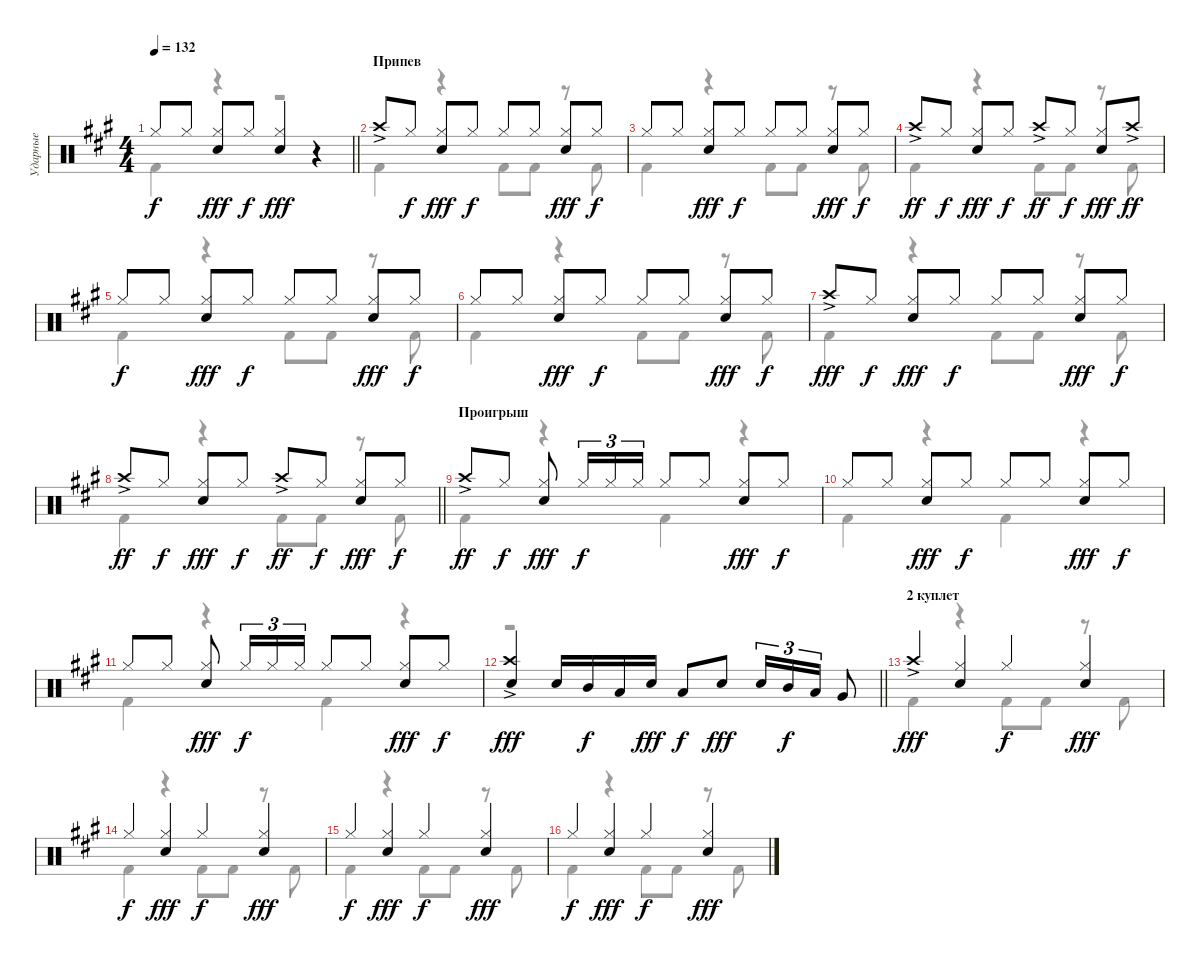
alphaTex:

\track ("Ударные" "Ударные") {instrument percussion}
\staff {score}
\articulation defaults
\voice
\ts (4 4)
\tempo 132
\clef neutral
\barLineRight lightlight
\ks a "Hi-Hat (closed)".8{dy f} "Hi-Hat (closed)".8
("Electric Snare (hit)" "Hi-Hat (closed)").8{dy fff} "Hi-Hat (closed)".8{dy f} ("Hi-Hat (closed)" "Electric Snare (hit)").4{dy fff} r.4 |
\section ("" "Припев")
"Crash high (hit)"{ac}.8 "Hi-Hat (closed)".8{dy f} ("Electric Snare (hit)" "Hi-Hat (closed)").8{dy fff} "Hi-Hat (closed)".8{dy f} "Hi-Hat (closed)".8 "Hi-Hat (closed)".8 ("Electric Snare (hit)" "Hi-Hat (closed)").8{dy fff} "Hi-Hat (closed)".8{dy f} |
"Hi-Hat (closed)".8 "Hi-Hat (closed)".8 ("Electric Snare (hit)" "Hi-Hat (closed)").8{dy fff} "Hi-Hat (closed)".8{dy f} "Hi-Hat (closed)".8 "Hi-Hat (closed)".8 ("Electric Snare (hit)" "Hi-Hat (closed)").8{dy fff} "Hi-Hat (closed)".8{dy f} |
"Crash high (hit)"{ac}.8{dy ff} "Hi-Hat (closed)".8{dy f} ("Electric Snare (hit)" "Hi-Hat (closed)").8{dy fff} "Hi-Hat (closed)".8{dy f} "Crash high (hit)"{ac}.8{dy ff} "Hi-Hat (closed)".8{dy f} ("Electric Snare (hit)" "Hi-Hat (closed)").8{dy fff} "Crash high (hit)"{ac}.8{dy ff} |
"Hi-Hat (closed)".8{dy f} "Hi-Hat (closed)".8 ("Electric Snare (hit)" "Hi-Hat (closed)").8{dy fff} "Hi-Hat (closed)".8{dy f} "Hi-Hat (closed)".8 "Hi-Hat (closed)".8 ("Electric Snare (hit)" "Hi-Hat (closed)").8{dy fff} "Hi-Hat (closed)".8{dy f} |
"Hi-Hat (closed)".8 "Hi-Hat (closed)".8 ("Electric Snare (hit)" "Hi-Hat (closed)").8{dy fff} "Hi-Hat (closed)".8{dy f} "Hi-Hat (closed)".8 "Hi-Hat (closed)".8 ("Electric Snare (hit)" "Hi-Hat (closed)").8{dy fff} "Hi-Hat (closed)".8{dy f} |
"Crash high (hit)"{ac}.8{dy fff} "Hi-Hat (closed)".8{dy f} ("Electric Snare (hit)" "Hi-Hat (closed)").8{dy fff} "Hi-Hat (closed)".8{dy f} "Hi-Hat (closed)".8 "Hi-Hat (closed)".8 ("Electric Snare (hit)" "Hi-Hat (closed)").8{dy fff} "Hi-Hat (closed)".8{dy f} |
\barLineRight lightlight "Crash high (hit)"{ac}.8{dy ff} "Hi-Hat (closed)".8{dy f}
("Electric Snare (hit)" "Hi-Hat (closed)").8{dy fff} "Hi-Hat (closed)".8{dy f} "Crash high (hit)"{ac}.8{dy ff} "Hi-Hat (closed)".8{dy f} ("Electric Snare (hit)" "Hi-Hat (closed)").8{dy fff} "Hi-Hat (closed)".8{dy f} |
\section ("" "Проигрыш")
"Crash high (hit)"{ac}.8{dy ff} "Hi-Hat (closed)".8{dy f} ("Hi-Hat (closed)" "Electric Snare (hit)").8{dy fff} "Hi-Hat (closed)".16{tu (3 2) dy f} "Hi-Hat (closed)".16{tu (3 2)} "Hi-Hat (closed)".16{tu (3 2)} "Hi-Hat (closed)".8 "Hi-Hat (closed)".8 ("Hi-Hat (closed)" "Electric Snare (hit)").8{dy fff} "Hi-Hat (closed)".8{dy f} |
"Hi-Hat (closed)".8 "Hi-Hat (closed)".8 ("Hi-Hat (closed)" "Electric Snare (hit)").8{dy fff} "Hi-Hat (closed)".8{dy f} "Hi-Hat (closed)".8 "Hi-Hat (closed)".8 ("Hi-Hat (closed)" "Electric Snare (hit)").8{dy fff} "Hi-Hat (closed)".8{dy f} |
"Hi-Hat (closed)".8 "Hi-Hat (closed)".8 ("Hi-Hat (closed)" "Electric Snare (hit)").8{dy fff} "Hi-Hat (closed)".16{tu (3 2) dy f} "Hi-Hat (closed)".16{tu (3 2)} "Hi-Hat (closed)".16{tu (3 2)} "Hi-Hat (closed)".8 "Hi-Hat (closed)".8 ("Hi-Hat (closed)" "Electric Snare (hit)").8{dy fff} "Hi-Hat (closed)".8{dy f} |
\barLineRight lightlight
("Crash high (hit)"{ac} "Electric Snare (hit)").4{dy fff} "Electric Snare (hit)".16 "Mid Tom (hit)".16{dy f} "Low Tom (hit)".16 "Electric Snare (hit)".16{dy fff} "Low Tom (hit)".8{dy f} "Electric Snare (hit)".8{dy fff} "Electric Snare (hit)".16{tu (3 2)} "Mid Tom (hit)".16{tu (3 2) dy f} "Low Tom (hit)".16{tu (3 2)} "Very Low Tom (hit)".8 |
\section ("" "2 куплет")
"Crash high (hit)"{ac}.4{dy fff} ("Electric Snare (hit)" "Hi-Hat (closed)").4 "Hi-Hat (closed)".4{dy f} ("Electric Snare (hit)" "Hi-Hat (closed)").4{dy fff} |
"Hi-Hat (closed)".4{dy f} ("Electric Snare (hit)" "Hi-Hat (closed)").4{dy fff} "Hi-Hat (closed)".4{dy f} ("Electric Snare (hit)" "Hi-Hat (closed)").4{dy fff} |
"Hi-Hat (closed)".4{dy f} ("Electric Snare (hit)" "Hi-Hat (closed)").4{dy fff} "Hi-Hat (closed)".4{dy f} ("Electric Snare (hit)" "Hi-Hat (closed)").4{dy fff} |
"Hi-Hat (closed)".4{dy f} ("Electric Snare (hit)" "Hi-Hat (closed)").4{dy fff} "Hi-Hat (closed)".4{dy f} ("Electric Snare (hit)" "Hi-Hat (closed)").4{dy fff}
\voice
\clef neutral
\ottava regular
\simile none
\barLineRight lightlight
\ks a "Kick (hit) 2".4{dy f}
r.4 r.2 |
"Kick (hit) 2".4 r.4 "Kick (hit) 2".8 "Kick (hit) 2".8 r.8 "Kick (hit) 2".8 |
"Kick (hit) 2".4 r.4 "Kick (hit) 2".8 "Kick (hit) 2".8 r.8 "Kick (hit) 2".8 |
"Kick (hit) 2".4 r.4 "Kick (hit) 2".8 "Kick (hit) 2".8 r.8 "Kick (hit) 2".8 |
"Kick (hit) 2".4 r.4 "Kick (hit) 2".8 "Kick (hit) 2".8 r.8 "Kick (hit) 2".8 |
"Kick (hit) 2".4 r.4 "Kick (hit) 2".8 "Kick (hit) 2".8 r.8 "Kick (hit) 2".8 |
"Kick (hit) 2".4 r.4 "Kick (hit) 2".8 "Kick (hit) 2".8 r.8 "Kick (hit) 2".8 |
\barLineRight lightlight "Kick (hit) 2".4
r.4 "Kick (hit) 2".8 "Kick (hit) 2".8 r.8 "Kick (hit) 2".8 |
"Kick (hit) 2".4 r.4 "Kick (hit) 2".4 r.4 |
"Kick (hit) 2".4 r.4 "Kick (hit) 2".4 r.4 |
"Kick (hit) 2".4 r.4 "Kick (hit) 2".4 r.4 |
\barLineRight lightlight
r.1 |
"Kick (hit) 2".4 r.4 "Kick (hit) 2".8 "Kick (hit) 2".8 r.8 "Kick (hit) 2".8 |
"Kick (hit) 2".4 r.4 "Kick (hit) 2".8 "Kick (hit) 2".8 r.8 "Kick (hit) 2".8 |
"Kick (hit) 2".4 r.4 "Kick (hit) 2".8 "Kick (hit) 2".8 r.8 "Kick (hit) 2".8 |
"Kick (hit) 2".4 r.4 "Kick (hit) 2".8 "Kick (hit) 2".8 r.8 "Kick (hit) 2".8
